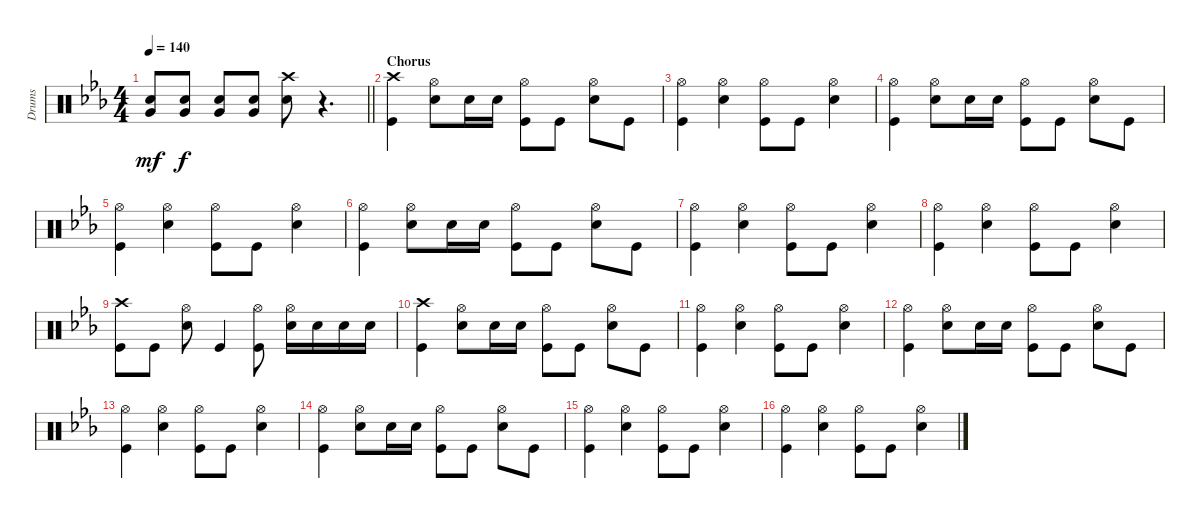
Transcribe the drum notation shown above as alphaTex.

\track ("Drums" "Drums") {instrument percussion}
\staff {score}
\articulation defaults
\ts (4 4)
\tempo 140
\clef neutral
\barLineRight lightlight
\ks eb
("Very Low Tom (hit)" "Snare (hit) 2").8{dy mf} ("Very Low Tom (hit)" "Snare (hit) 2").8{dy f} ("Very Low Tom (hit)" "Snare (hit) 2").8 ("Very Low Tom (hit)" "Snare (hit) 2").8 ("Crash high (hit)" "Snare (hit) 2").8 r.4{d} |
\section ("" "Chorus")
("Crash high (hit)" "Kick (hit)").4 ("Hi-Hat (open)" "Snare (hit) 2").8 "Snare (hit) 2".16 "Snare (hit) 2".16 ("Hi-Hat (open)" "Kick (hit)").8 "Kick (hit)".8 ("Hi-Hat (open)" "Snare (hit) 2").8 "Kick (hit)".8 |
("Hi-Hat (open)" "Kick (hit)").4 ("Hi-Hat (open)" "Snare (hit) 2").4 ("Hi-Hat (open)" "Kick (hit)").8 "Kick (hit)".8 ("Hi-Hat (open)" "Snare (hit) 2").4 |
("Hi-Hat (open)" "Kick (hit)").4 ("Hi-Hat (open)" "Snare (hit) 2").8 "Snare (hit) 2".16 "Snare (hit) 2".16 ("Hi-Hat (open)" "Kick (hit)").8 "Kick (hit)".8 ("Hi-Hat (open)" "Snare (hit) 2").8 "Kick (hit)".8 |
("Hi-Hat (open)" "Kick (hit)").4 ("Hi-Hat (open)" "Snare (hit) 2").4 ("Hi-Hat (open)" "Kick (hit)").8 "Kick (hit)".8 ("Hi-Hat (open)" "Snare (hit) 2").4 |
("Hi-Hat (open)" "Kick (hit)").4 ("Hi-Hat (open)" "Snare (hit) 2").8 "Snare (hit) 2".16 "Snare (hit) 2".16 ("Hi-Hat (open)" "Kick (hit)").8 "Kick (hit)".8 ("Hi-Hat (open)" "Snare (hit) 2").8 "Kick (hit)".8 |
("Hi-Hat (open)" "Kick (hit)").4 ("Hi-Hat (open)" "Snare (hit) 2").4 ("Hi-Hat (open)" "Kick (hit)").8 "Kick (hit)".8 ("Hi-Hat (open)" "Snare (hit) 2").4 |
("Hi-Hat (open)" "Kick (hit)").4 ("Hi-Hat (open)" "Snare (hit) 2").4 ("Hi-Hat (open)" "Kick (hit)").8 "Kick (hit)".8 ("Hi-Hat (open)" "Snare (hit) 2").4 |
("Crash high (hit)" "Kick (hit)").8 "Kick (hit)".8 ("Hi-Hat (open)" "Snare (hit) 2").8 "Kick (hit)".4 ("Hi-Hat (open)" "Kick (hit)").8 ("Hi-Hat (open)" "Snare (hit) 2").16 "Snare (hit) 2".16 "Snare (hit) 2".16 "Snare (hit) 2".16 |
("Crash high (hit)" "Kick (hit)").4 ("Hi-Hat (open)" "Snare (hit) 2").8 "Snare (hit) 2".16 "Snare (hit) 2".16 ("Hi-Hat (open)" "Kick (hit)").8 "Kick (hit)".8 ("Hi-Hat (open)" "Snare (hit) 2").8 "Kick (hit)".8 |
("Hi-Hat (open)" "Kick (hit)").4 ("Hi-Hat (open)" "Snare (hit) 2").4 ("Hi-Hat (open)" "Kick (hit)").8 "Kick (hit)".8 ("Hi-Hat (open)" "Snare (hit) 2").4 |
("Hi-Hat (open)" "Kick (hit)").4 ("Hi-Hat (open)" "Snare (hit) 2").8 "Snare (hit) 2".16 "Snare (hit) 2".16 ("Hi-Hat (open)" "Kick (hit)").8 "Kick (hit)".8 ("Hi-Hat (open)" "Snare (hit) 2").8 "Kick (hit)".8 |
("Hi-Hat (open)" "Kick (hit)").4 ("Hi-Hat (open)" "Snare (hit) 2").4 ("Hi-Hat (open)" "Kick (hit)").8 "Kick (hit)".8 ("Hi-Hat (open)" "Snare (hit) 2").4 |
("Hi-Hat (open)" "Kick (hit)").4 ("Hi-Hat (open)" "Snare (hit) 2").8 "Snare (hit) 2".16 "Snare (hit) 2".16 ("Hi-Hat (open)" "Kick (hit)").8 "Kick (hit)".8 ("Hi-Hat (open)" "Snare (hit) 2").8 "Kick (hit)".8 |
("Hi-Hat (open)" "Kick (hit)").4 ("Hi-Hat (open)" "Snare (hit) 2").4 ("Hi-Hat (open)" "Kick (hit)").8 "Kick (hit)".8 ("Hi-Hat (open)" "Snare (hit) 2").4 |
("Hi-Hat (open)" "Kick (hit)").4 ("Hi-Hat (open)" "Snare (hit) 2").4 ("Hi-Hat (open)" "Kick (hit)").8 "Kick (hit)".8 ("Hi-Hat (open)" "Snare (hit) 2").4
